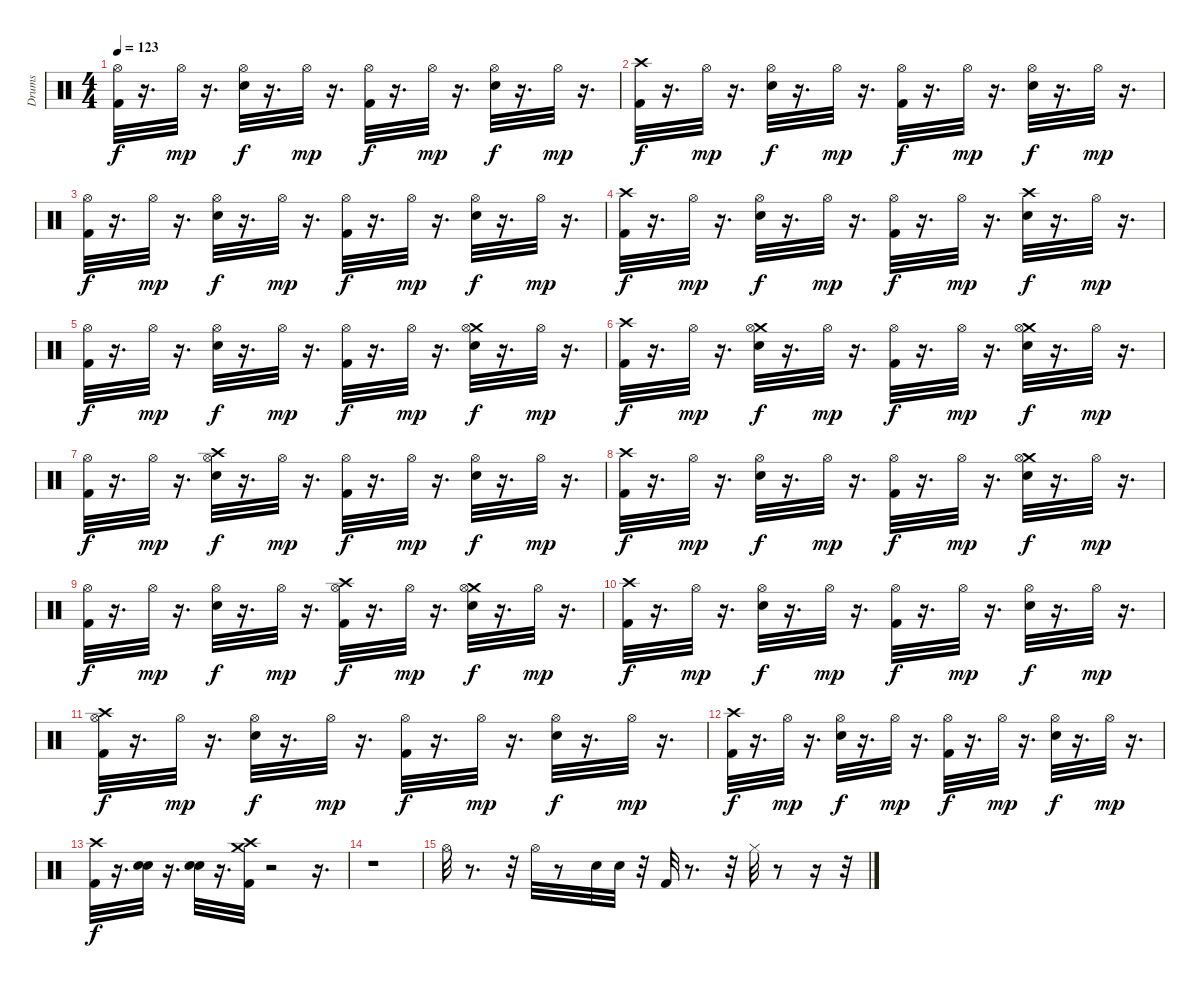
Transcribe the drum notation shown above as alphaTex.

\track ("Drums" "Drums") {instrument percussion}
\staff {score}
\articulation defaults
\ts (4 4)
\tempo 123
\clef neutral
\ks c
("Hi-Hat (open)" "Kick (hit) 2").32{dy f} r.16{d} "Hi-Hat (open)".32{dy mp} r.16{d} ("Hi-Hat (open)" "Electric Snare (hit)").32{dy f} r.16{d} "Hi-Hat (open)".32{dy mp} r.16{d} ("Hi-Hat (open)" "Kick (hit) 2").32{dy f} r.16{d} "Hi-Hat (open)".32{dy mp} r.16{d} ("Hi-Hat (open)" "Electric Snare (hit)").32{dy f} r.16{d} "Hi-Hat (open)".32{dy mp} r.16{d} |
("Crash high (hit)" "Kick (hit) 2").32{dy f} r.16{d} "Hi-Hat (open)".32{dy mp} r.16{d} ("Hi-Hat (open)" "Electric Snare (hit)").32{dy f} r.16{d} "Hi-Hat (open)".32{dy mp} r.16{d} ("Kick (hit) 2" "Hi-Hat (open)").32{dy f} r.16{d} "Hi-Hat (open)".32{dy mp} r.16{d} ("Hi-Hat (open)" "Electric Snare (hit)").32{dy f} r.16{d} "Hi-Hat (open)".32{dy mp} r.16{d} |
("Hi-Hat (open)" "Kick (hit) 2").32{dy f} r.16{d} "Hi-Hat (open)".32{dy mp} r.16{d} ("Hi-Hat (open)" "Electric Snare (hit)").32{dy f} r.16{d} "Hi-Hat (open)".32{dy mp} r.16{d} ("Hi-Hat (open)" "Kick (hit) 2").32{dy f} r.16{d} "Hi-Hat (open)".32{dy mp} r.16{d} ("Hi-Hat (open)" "Electric Snare (hit)").32{dy f} r.16{d} "Hi-Hat (open)".32{dy mp} r.16{d} |
("Crash high (hit)" "Kick (hit) 2").32{dy f} r.16{d} "Hi-Hat (open)".32{dy mp} r.16{d} ("Hi-Hat (open)" "Electric Snare (hit)").32{dy f} r.16{d} "Hi-Hat (open)".32{dy mp} r.16{d} ("Kick (hit) 2" "Hi-Hat (open)").32{dy f} r.16{d} "Hi-Hat (open)".32{dy mp} r.16{d} ("Crash high (hit)" "Electric Snare (hit)").32{dy f} r.16{d} "Hi-Hat (open)".32{dy mp} r.16{d} |
("Hi-Hat (open)" "Kick (hit) 2").32{dy f} r.16{d} "Hi-Hat (open)".32{dy mp} r.16{d} ("Hi-Hat (open)" "Electric Snare (hit)").32{dy f} r.16{d} "Hi-Hat (open)".32{dy mp} r.16{d} ("Hi-Hat (open)" "Kick (hit) 2").32{dy f} r.16{d} "Hi-Hat (open)".32{dy mp} r.16{d} ("Crash medium (hit)" "Hi-Hat (open)" "Electric Snare (hit)").32{dy f} r.16{d} "Hi-Hat (open)".32{dy mp} r.16{d} |
("Crash high (hit)" "Kick (hit) 2").32{dy f} r.16{d} "Hi-Hat (open)".32{dy mp} r.16{d} ("Crash medium (hit)" "Hi-Hat (open)" "Electric Snare (hit)").32{dy f} r.16{d} "Hi-Hat (open)".32{dy mp} r.16{d} ("Kick (hit) 2" "Hi-Hat (open)").32{dy f} r.16{d} "Hi-Hat (open)".32{dy mp} r.16{d} ("Crash medium (hit)" "Hi-Hat (open)" "Electric Snare (hit)").32{dy f} r.16{d} "Hi-Hat (open)".32{dy mp} r.16{d} |
("Hi-Hat (open)" "Kick (hit) 2").32{dy f} r.16{d} "Hi-Hat (open)".32{dy mp} r.16{d} ("Crash high (hit)" "Hi-Hat (open)" "Electric Snare (hit)").32{dy f} r.16{d} "Hi-Hat (open)".32{dy mp} r.16{d} ("Hi-Hat (open)" "Kick (hit) 2").32{dy f} r.16{d} "Hi-Hat (open)".32{dy mp} r.16{d} ("Hi-Hat (open)" "Electric Snare (hit)").32{dy f} r.16{d} "Hi-Hat (open)".32{dy mp} r.16{d} |
("Crash high (hit)" "Kick (hit) 2").32{dy f} r.16{d} "Hi-Hat (open)".32{dy mp} r.16{d} ("Hi-Hat (open)" "Electric Snare (hit)").32{dy f} r.16{d} "Hi-Hat (open)".32{dy mp} r.16{d} ("Kick (hit) 2" "Hi-Hat (open)").32{dy f} r.16{d} "Hi-Hat (open)".32{dy mp} r.16{d} ("Crash medium (hit)" "Hi-Hat (open)" "Electric Snare (hit)").32{dy f} r.16{d} "Hi-Hat (open)".32{dy mp} r.16{d} |
("Hi-Hat (open)" "Kick (hit) 2").32{dy f} r.16{d} "Hi-Hat (open)".32{dy mp} r.16{d} ("Hi-Hat (open)" "Electric Snare (hit)").32{dy f} r.16{d} "Hi-Hat (open)".32{dy mp} r.16{d} ("Crash high (hit)" "Hi-Hat (open)" "Kick (hit) 2").32{dy f} r.16{d} "Hi-Hat (open)".32{dy mp} r.16{d} ("Crash medium (hit)" "Hi-Hat (open)" "Electric Snare (hit)").32{dy f} r.16{d} "Hi-Hat (open)".32{dy mp} r.16{d} |
("Crash high (hit)" "Kick (hit) 2").32{dy f} r.16{d} "Hi-Hat (open)".32{dy mp} r.16{d} ("Hi-Hat (open)" "Electric Snare (hit)").32{dy f} r.16{d} "Hi-Hat (open)".32{dy mp} r.16{d} ("Kick (hit) 2" "Hi-Hat (open)").32{dy f} r.16{d} "Hi-Hat (open)".32{dy mp} r.16{d} ("Hi-Hat (open)" "Electric Snare (hit)").32{dy f} r.16{d} "Hi-Hat (open)".32{dy mp} r.16{d} |
("Crash high (hit)" "Hi-Hat (open)" "Kick (hit) 2").32{dy f} r.16{d} "Hi-Hat (open)".32{dy mp} r.16{d} ("Hi-Hat (open)" "Electric Snare (hit)").32{dy f} r.16{d} "Hi-Hat (open)".32{dy mp} r.16{d} ("Hi-Hat (open)" "Kick (hit) 2").32{dy f} r.16{d} "Hi-Hat (open)".32{dy mp} r.16{d} ("Hi-Hat (open)" "Electric Snare (hit)").32{dy f} r.16{d} "Hi-Hat (open)".32{dy mp} r.16{d} |
("Crash high (hit)" "Kick (hit) 2").32{dy f} r.16{d} "Hi-Hat (open)".32{dy mp} r.16{d} ("Hi-Hat (open)" "Electric Snare (hit)").32{dy f} r.16{d} "Hi-Hat (open)".32{dy mp} r.16{d} ("Kick (hit) 2" "Hi-Hat (open)").32{dy f} r.16{d} "Hi-Hat (open)".32{dy mp} r.16{d} ("Hi-Hat (open)" "Electric Snare (hit)").32{dy f} r.16{d} "Hi-Hat (open)".32{dy mp} r.16{d} |
("Crash high (hit)" "Kick (hit) 2").32{dy f} r.16{d} ("Electric Snare (hit)" "Snare (hit) 2").32 r.16{d} ("Electric Snare (hit)" "Snare (hit) 2").32 r.16{d} ("Crash medium (hit)" "Crash high (hit)" "Kick (hit) 2").32 r.2 r.16{d} |
r.1 |
"Hi-Hat (open)".32 r.8{d} r.32 "Hi-Hat (open)".32 r.8 "Electric Snare (hit)".32 "Electric Snare (hit)".32 r.32 "Kick (hit) 2".32 r.8{d} r.32 "Hi-Hat (closed)".32 r.8 r.16 r.32
